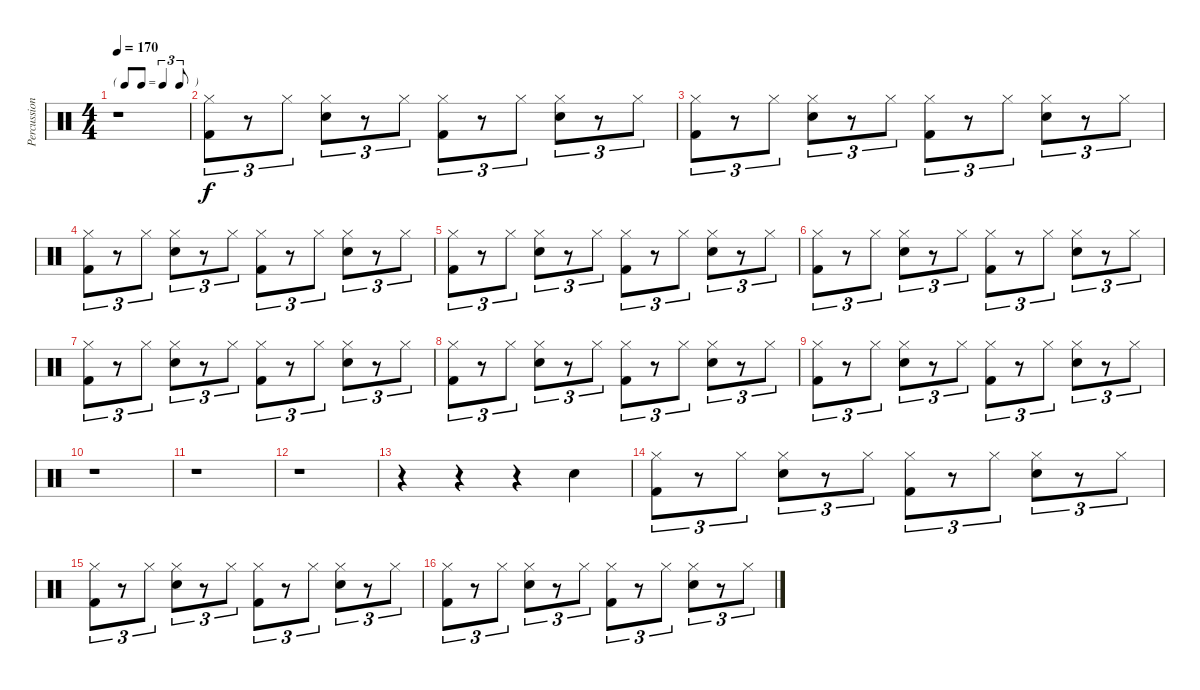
\track ("Percussion" "Percussion") {instrument percussion}
\staff {score}
\articulation defaults
\ts (4 4)
\tf triplet8th
\tempo 170
\clef neutral
\ks c
r.1{dy f} |
("Hi-Hat (closed)" "Kick (hit) 2").8{tu (3 2)} r.8{tu (3 2)} "Hi-Hat (closed)".8{tu (3 2)} ("Hi-Hat (closed)" "Snare (hit) 2").8{tu (3 2)} r.8{tu (3 2)} "Hi-Hat (closed)".8{tu (3 2)} ("Hi-Hat (closed)" "Kick (hit) 2").8{tu (3 2)} r.8{tu (3 2)} "Hi-Hat (closed)".8{tu (3 2)} ("Hi-Hat (closed)" "Snare (hit) 2").8{tu (3 2)} r.8{tu (3 2)} "Hi-Hat (closed)".8{tu (3 2)} |
("Hi-Hat (closed)" "Kick (hit) 2").8{tu (3 2)} r.8{tu (3 2)} "Hi-Hat (closed)".8{tu (3 2)} ("Hi-Hat (closed)" "Snare (hit) 2").8{tu (3 2)} r.8{tu (3 2)} "Hi-Hat (closed)".8{tu (3 2)} ("Hi-Hat (closed)" "Kick (hit) 2").8{tu (3 2)} r.8{tu (3 2)} "Hi-Hat (closed)".8{tu (3 2)} ("Hi-Hat (closed)" "Snare (hit) 2").8{tu (3 2)} r.8{tu (3 2)} "Hi-Hat (closed)".8{tu (3 2)} |
("Hi-Hat (closed)" "Kick (hit) 2").8{tu (3 2)} r.8{tu (3 2)} "Hi-Hat (closed)".8{tu (3 2)} ("Hi-Hat (closed)" "Snare (hit) 2").8{tu (3 2)} r.8{tu (3 2)} "Hi-Hat (closed)".8{tu (3 2)} ("Hi-Hat (closed)" "Kick (hit) 2").8{tu (3 2)} r.8{tu (3 2)} "Hi-Hat (closed)".8{tu (3 2)} ("Hi-Hat (closed)" "Snare (hit) 2").8{tu (3 2)} r.8{tu (3 2)} "Hi-Hat (closed)".8{tu (3 2)} |
("Hi-Hat (closed)" "Kick (hit) 2").8{tu (3 2)} r.8{tu (3 2)} "Hi-Hat (closed)".8{tu (3 2)} ("Hi-Hat (closed)" "Snare (hit) 2").8{tu (3 2)} r.8{tu (3 2)} "Hi-Hat (closed)".8{tu (3 2)} ("Hi-Hat (closed)" "Kick (hit) 2").8{tu (3 2)} r.8{tu (3 2)} "Hi-Hat (closed)".8{tu (3 2)} ("Hi-Hat (closed)" "Snare (hit) 2").8{tu (3 2)} r.8{tu (3 2)} "Hi-Hat (closed)".8{tu (3 2)} |
("Hi-Hat (closed)" "Kick (hit) 2").8{tu (3 2)} r.8{tu (3 2)} "Hi-Hat (closed)".8{tu (3 2)} ("Hi-Hat (closed)" "Snare (hit) 2").8{tu (3 2)} r.8{tu (3 2)} "Hi-Hat (closed)".8{tu (3 2)} ("Hi-Hat (closed)" "Kick (hit) 2").8{tu (3 2)} r.8{tu (3 2)} "Hi-Hat (closed)".8{tu (3 2)} ("Hi-Hat (closed)" "Snare (hit) 2").8{tu (3 2)} r.8{tu (3 2)} "Hi-Hat (closed)".8{tu (3 2)} |
("Hi-Hat (closed)" "Kick (hit) 2").8{tu (3 2)} r.8{tu (3 2)} "Hi-Hat (closed)".8{tu (3 2)} ("Hi-Hat (closed)" "Snare (hit) 2").8{tu (3 2)} r.8{tu (3 2)} "Hi-Hat (closed)".8{tu (3 2)} ("Hi-Hat (closed)" "Kick (hit) 2").8{tu (3 2)} r.8{tu (3 2)} "Hi-Hat (closed)".8{tu (3 2)} ("Hi-Hat (closed)" "Snare (hit) 2").8{tu (3 2)} r.8{tu (3 2)} "Hi-Hat (closed)".8{tu (3 2)} |
("Hi-Hat (closed)" "Kick (hit) 2").8{tu (3 2)} r.8{tu (3 2)} "Hi-Hat (closed)".8{tu (3 2)} ("Hi-Hat (closed)" "Snare (hit) 2").8{tu (3 2)} r.8{tu (3 2)} "Hi-Hat (closed)".8{tu (3 2)} ("Hi-Hat (closed)" "Kick (hit) 2").8{tu (3 2)} r.8{tu (3 2)} "Hi-Hat (closed)".8{tu (3 2)} ("Hi-Hat (closed)" "Snare (hit) 2").8{tu (3 2)} r.8{tu (3 2)} "Hi-Hat (closed)".8{tu (3 2)} |
("Hi-Hat (closed)" "Kick (hit) 2").8{tu (3 2)} r.8{tu (3 2)} "Hi-Hat (closed)".8{tu (3 2)} ("Hi-Hat (closed)" "Snare (hit) 2").8{tu (3 2)} r.8{tu (3 2)} "Hi-Hat (closed)".8{tu (3 2)} ("Hi-Hat (closed)" "Kick (hit) 2").8{tu (3 2)} r.8{tu (3 2)} "Hi-Hat (closed)".8{tu (3 2)} ("Hi-Hat (closed)" "Snare (hit) 2").8{tu (3 2)} r.8{tu (3 2)} "Hi-Hat (closed)".8{tu (3 2)} |
r.1 |
r.1 |
r.1 |
r.4 r.4 r.4 "Snare (hit) 2".4 |
("Hi-Hat (closed)" "Kick (hit) 2").8{tu (3 2)} r.8{tu (3 2)} "Hi-Hat (closed)".8{tu (3 2)} ("Hi-Hat (closed)" "Snare (hit) 2").8{tu (3 2)} r.8{tu (3 2)} "Hi-Hat (closed)".8{tu (3 2)} ("Hi-Hat (closed)" "Kick (hit) 2").8{tu (3 2)} r.8{tu (3 2)} "Hi-Hat (closed)".8{tu (3 2)} ("Hi-Hat (closed)" "Snare (hit) 2").8{tu (3 2)} r.8{tu (3 2)} "Hi-Hat (closed)".8{tu (3 2)} |
("Hi-Hat (closed)" "Kick (hit) 2").8{tu (3 2)} r.8{tu (3 2)} "Hi-Hat (closed)".8{tu (3 2)} ("Hi-Hat (closed)" "Snare (hit) 2").8{tu (3 2)} r.8{tu (3 2)} "Hi-Hat (closed)".8{tu (3 2)} ("Hi-Hat (closed)" "Kick (hit) 2").8{tu (3 2)} r.8{tu (3 2)} "Hi-Hat (closed)".8{tu (3 2)} ("Hi-Hat (closed)" "Snare (hit) 2").8{tu (3 2)} r.8{tu (3 2)} "Hi-Hat (closed)".8{tu (3 2)} |
("Hi-Hat (closed)" "Kick (hit) 2").8{tu (3 2)} r.8{tu (3 2)} "Hi-Hat (closed)".8{tu (3 2)} ("Hi-Hat (closed)" "Snare (hit) 2").8{tu (3 2)} r.8{tu (3 2)} "Hi-Hat (closed)".8{tu (3 2)} ("Hi-Hat (closed)" "Kick (hit) 2").8{tu (3 2)} r.8{tu (3 2)} "Hi-Hat (closed)".8{tu (3 2)} ("Hi-Hat (closed)" "Snare (hit) 2").8{tu (3 2)} r.8{tu (3 2)} "Hi-Hat (closed)".8{tu (3 2)}
